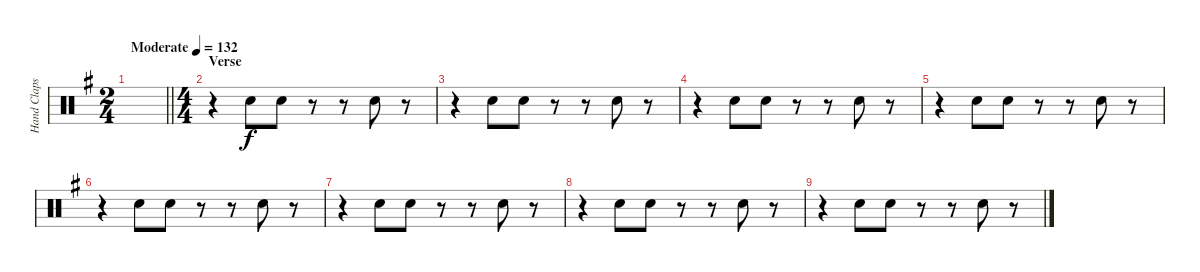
\track ("Hand Claps" "Hand Claps") {instrument percussion}
\staff {score}
\articulation defaults
\ts (2 4)
\tempo (132 "Moderate")
\clef neutral
\barLineRight lightlight
\ks g
|
\ts (4 4)
\section ("" "Verse")
r.4 "Hand Clap (hit)".8 "Hand Clap (hit)".8 r.8 r.8 "Hand Clap (hit)".8 r.8 |
r.4 "Hand Clap (hit)".8 "Hand Clap (hit)".8 r.8 r.8 "Hand Clap (hit)".8 r.8 |
r.4 "Hand Clap (hit)".8 "Hand Clap (hit)".8 r.8 r.8 "Hand Clap (hit)".8 r.8 |
r.4 "Hand Clap (hit)".8 "Hand Clap (hit)".8 r.8 r.8 "Hand Clap (hit)".8 r.8 |
r.4 "Hand Clap (hit)".8 "Hand Clap (hit)".8 r.8 r.8 "Hand Clap (hit)".8 r.8 |
r.4 "Hand Clap (hit)".8 "Hand Clap (hit)".8 r.8 r.8 "Hand Clap (hit)".8 r.8 |
r.4 "Hand Clap (hit)".8 "Hand Clap (hit)".8 r.8 r.8 "Hand Clap (hit)".8 r.8 |
r.4 "Hand Clap (hit)".8 "Hand Clap (hit)".8 r.8 r.8 "Hand Clap (hit)".8 r.8
